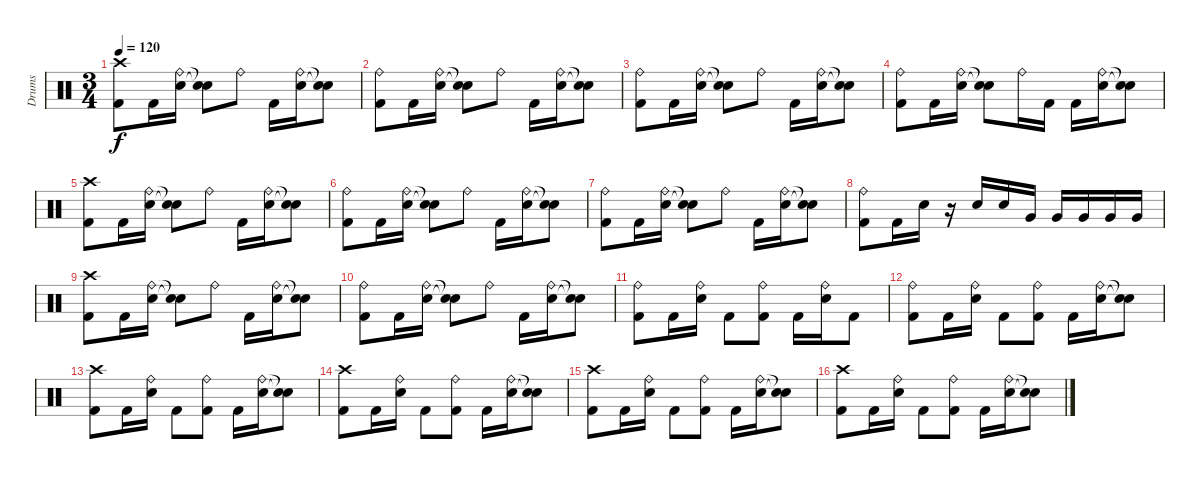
\track ("Drums" "Drums") {instrument percussion}
\staff {score}
\articulation defaults
\ts (3 4)
\tempo 120
\clef neutral
\ks c
("Crash high (hit)" "Kick (hit) 2").8{dy f} "Kick (hit) 2".16 ("Ride (bell)" "Electric Snare (hit)").16 ("Snare (hit)"{t} "Snare (hit)"{t}).8 "Ride (bell)".8 "Kick (hit) 2".16 ("Ride (bell)" "Electric Snare (hit)").16 ("Snare (hit)"{t} "Snare (hit)"{t}).8 |
("Ride (bell)" "Kick (hit) 2").8 "Kick (hit) 2".16 ("Ride (bell)" "Electric Snare (hit)").16 ("Snare (hit)"{t} "Snare (hit)"{t}).8 "Ride (bell)".8 "Kick (hit) 2".16 ("Ride (bell)" "Electric Snare (hit)").16 ("Snare (hit)"{t} "Snare (hit)"{t}).8 |
("Ride (bell)" "Kick (hit) 2").8 "Kick (hit) 2".16 ("Ride (bell)" "Electric Snare (hit)").16 ("Snare (hit)"{t} "Snare (hit)"{t}).8 "Ride (bell)".8 "Kick (hit) 2".16 ("Ride (bell)" "Electric Snare (hit)").16 ("Snare (hit)"{t} "Snare (hit)"{t}).8 |
("Ride (bell)" "Kick (hit) 2").8 "Kick (hit) 2".16 ("Ride (bell)" "Electric Snare (hit)").16 ("Snare (hit)"{t} "Snare (hit)"{t}).8 "Ride (bell)".16 "Kick (hit) 2".16 "Kick (hit) 2".16 ("Ride (bell)" "Electric Snare (hit)").16 ("Snare (hit)"{t} "Snare (hit)"{t}).8 |
("Crash high (hit)" "Kick (hit) 2").8 "Kick (hit) 2".16 ("Ride (bell)" "Electric Snare (hit)").16 ("Snare (hit)"{t} "Snare (hit)"{t}).8 "Ride (bell)".8 "Kick (hit) 2".16 ("Ride (bell)" "Electric Snare (hit)").16 ("Snare (hit)"{t} "Snare (hit)"{t}).8 |
("Ride (bell)" "Kick (hit) 2").8 "Kick (hit) 2".16 ("Ride (bell)" "Electric Snare (hit)").16 ("Snare (hit)"{t} "Snare (hit)"{t}).8 "Ride (bell)".8 "Kick (hit) 2".16 ("Ride (bell)" "Electric Snare (hit)").16 ("Snare (hit)"{t} "Snare (hit)"{t}).8 |
("Ride (bell)" "Kick (hit) 2").8 "Kick (hit) 2".16 ("Ride (bell)" "Electric Snare (hit)").16 ("Snare (hit)"{t} "Snare (hit)"{t}).8 "Ride (bell)".8 "Kick (hit) 2".16 ("Ride (bell)" "Electric Snare (hit)").16 ("Snare (hit)"{t} "Snare (hit)"{t}).8 |
("Ride (bell)" "Kick (hit) 2").8 "Kick (hit) 2".16 "Electric Snare (hit)".16 r.16 "Electric Snare (hit)".16 "Electric Snare (hit)".16 "Very Low Tom (hit)".16 "Very Low Tom (hit)".16 "Very Low Tom (hit)".16 "Very Low Tom (hit)".16 "Very Low Tom (hit)".16 |
("Crash high (hit)" "Kick (hit) 2").8 "Kick (hit) 2".16 ("Ride (bell)" "Electric Snare (hit)").16 ("Snare (hit)"{t} "Snare (hit)"{t}).8 "Ride (bell)".8 "Kick (hit) 2".16 ("Ride (bell)" "Electric Snare (hit)").16 ("Snare (hit)"{t} "Snare (hit)"{t}).8 |
("Ride (bell)" "Kick (hit) 2").8 "Kick (hit) 2".16 ("Ride (bell)" "Electric Snare (hit)").16 ("Snare (hit)"{t} "Snare (hit)"{t}).8 "Ride (bell)".8 "Kick (hit) 2".16 ("Ride (bell)" "Electric Snare (hit)").16 ("Snare (hit)"{t} "Snare (hit)"{t}).8 |
("Ride (bell)" "Kick (hit) 2").8 "Kick (hit) 2".16 ("Ride (bell)" "Electric Snare (hit)").16 "Kick (hit) 2".8 ("Ride (bell)" "Kick (hit) 2").8 "Kick (hit) 2".16 ("Ride (bell)" "Electric Snare (hit)").16 "Kick (hit) 2".8 |
("Ride (bell)" "Kick (hit) 2").8 "Kick (hit) 2".16 ("Ride (bell)" "Electric Snare (hit)").16 "Kick (hit) 2".8 ("Ride (bell)" "Kick (hit) 2").8 "Kick (hit) 2".16 ("Ride (bell)" "Electric Snare (hit)").16 ("Snare (hit)"{t} "Snare (hit)"{t}).8 |
("Crash high (hit)" "Kick (hit) 2").8 "Kick (hit) 2".16 ("Ride (bell)" "Electric Snare (hit)").16 "Kick (hit) 2".8 ("Ride (bell)" "Kick (hit) 2").8 "Kick (hit) 2".16 ("Ride (bell)" "Electric Snare (hit)").16 ("Snare (hit)"{t} "Snare (hit)"{t}).8 |
("Crash high (hit)" "Kick (hit) 2").8 "Kick (hit) 2".16 ("Ride (bell)" "Electric Snare (hit)").16 "Kick (hit) 2".8 ("Ride (bell)" "Kick (hit) 2").8 "Kick (hit) 2".16 ("Ride (bell)" "Electric Snare (hit)").16 ("Snare (hit)"{t} "Snare (hit)"{t}).8 |
("Crash high (hit)" "Kick (hit) 2").8 "Kick (hit) 2".16 ("Ride (bell)" "Electric Snare (hit)").16 "Kick (hit) 2".8 ("Ride (bell)" "Kick (hit) 2").8 "Kick (hit) 2".16 ("Ride (bell)" "Electric Snare (hit)").16 ("Snare (hit)"{t} "Snare (hit)"{t}).8 |
("Crash high (hit)" "Kick (hit) 2").8 "Kick (hit) 2".16 ("Ride (bell)" "Electric Snare (hit)").16 "Kick (hit) 2".8 ("Ride (bell)" "Kick (hit) 2").8 "Kick (hit) 2".16 ("Ride (bell)" "Electric Snare (hit)").16 ("Snare (hit)"{t} "Snare (hit)"{t}).8
